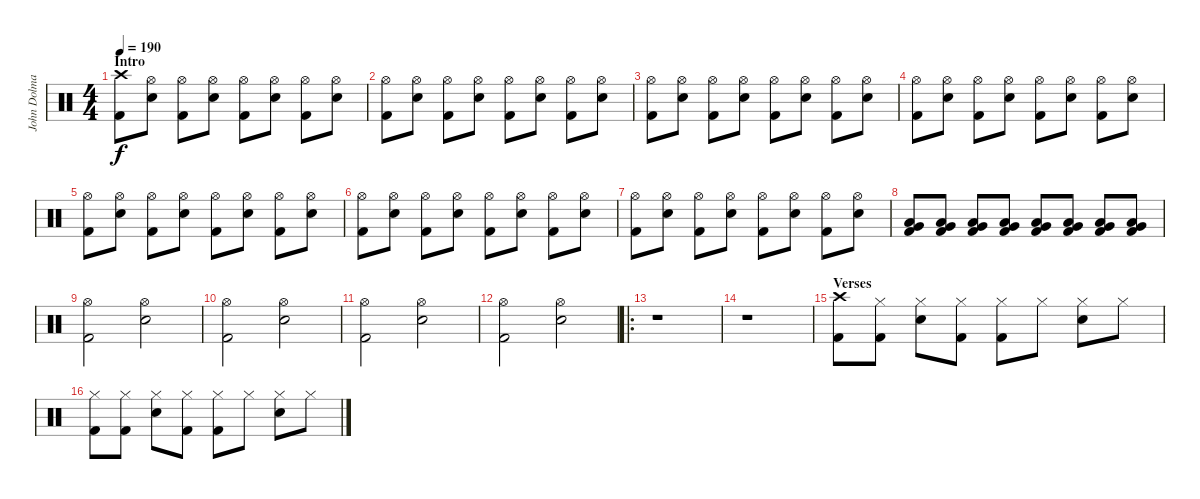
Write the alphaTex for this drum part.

\track ("John Dolmayan" "John Dolma") {instrument percussion}
\staff {score}
\articulation defaults
\ts (4 4)
\section ("" "Intro")
\tempo 190
\clef neutral
\ks c
("Crash high (hit)" "Kick (hit) 2").8{dy f} ("Hi-Hat (open)" "Electric Snare (hit)").8 ("Hi-Hat (open)" "Kick (hit) 2").8 ("Hi-Hat (open)" "Electric Snare (hit)").8 ("Hi-Hat (open)" "Kick (hit) 2").8 ("Hi-Hat (open)" "Electric Snare (hit)").8 ("Hi-Hat (open)" "Kick (hit) 2").8 ("Hi-Hat (open)" "Electric Snare (hit)").8 |
("Hi-Hat (open)" "Kick (hit) 2").8 ("Hi-Hat (open)" "Electric Snare (hit)").8 ("Hi-Hat (open)" "Kick (hit) 2").8 ("Hi-Hat (open)" "Electric Snare (hit)").8 ("Hi-Hat (open)" "Kick (hit) 2").8 ("Hi-Hat (open)" "Electric Snare (hit)").8 ("Hi-Hat (open)" "Kick (hit) 2").8 ("Hi-Hat (open)" "Electric Snare (hit)").8 |
("Hi-Hat (open)" "Kick (hit) 2").8 ("Hi-Hat (open)" "Electric Snare (hit)").8 ("Hi-Hat (open)" "Kick (hit) 2").8 ("Hi-Hat (open)" "Electric Snare (hit)").8 ("Hi-Hat (open)" "Kick (hit) 2").8 ("Hi-Hat (open)" "Electric Snare (hit)").8 ("Hi-Hat (open)" "Kick (hit) 2").8 ("Hi-Hat (open)" "Electric Snare (hit)").8 |
("Hi-Hat (open)" "Kick (hit) 2").8 ("Hi-Hat (open)" "Electric Snare (hit)").8 ("Hi-Hat (open)" "Kick (hit) 2").8 ("Hi-Hat (open)" "Electric Snare (hit)").8 ("Hi-Hat (open)" "Kick (hit) 2").8 ("Hi-Hat (open)" "Electric Snare (hit)").8 ("Hi-Hat (open)" "Kick (hit) 2").8 ("Hi-Hat (open)" "Electric Snare (hit)").8 |
("Hi-Hat (open)" "Kick (hit) 2").8 ("Hi-Hat (open)" "Electric Snare (hit)").8 ("Hi-Hat (open)" "Kick (hit) 2").8 ("Hi-Hat (open)" "Electric Snare (hit)").8 ("Hi-Hat (open)" "Kick (hit) 2").8 ("Hi-Hat (open)" "Electric Snare (hit)").8 ("Hi-Hat (open)" "Kick (hit) 2").8 ("Hi-Hat (open)" "Electric Snare (hit)").8 |
("Hi-Hat (open)" "Kick (hit) 2").8 ("Hi-Hat (open)" "Electric Snare (hit)").8 ("Hi-Hat (open)" "Kick (hit) 2").8 ("Hi-Hat (open)" "Electric Snare (hit)").8 ("Hi-Hat (open)" "Kick (hit) 2").8 ("Hi-Hat (open)" "Electric Snare (hit)").8 ("Hi-Hat (open)" "Kick (hit) 2").8 ("Hi-Hat (open)" "Electric Snare (hit)").8 |
("Hi-Hat (open)" "Kick (hit) 2").8 ("Hi-Hat (open)" "Electric Snare (hit)").8 ("Hi-Hat (open)" "Kick (hit) 2").8 ("Hi-Hat (open)" "Electric Snare (hit)").8 ("Hi-Hat (open)" "Kick (hit) 2").8 ("Hi-Hat (open)" "Electric Snare (hit)").8 ("Hi-Hat (open)" "Kick (hit) 2").8 ("Hi-Hat (open)" "Electric Snare (hit)").8 |
("Very Low Tom (hit)" "Low Tom (hit)" "Kick (hit) 2").8 ("Very Low Tom (hit)" "Low Tom (hit)" "Kick (hit) 2").8 ("Very Low Tom (hit)" "Low Tom (hit)" "Kick (hit) 2").8 ("Very Low Tom (hit)" "Low Tom (hit)" "Kick (hit) 2").8 ("Very Low Tom (hit)" "Low Tom (hit)" "Kick (hit) 2").8 ("Very Low Tom (hit)" "Low Tom (hit)" "Kick (hit) 2").8 ("Very Low Tom (hit)" "Low Tom (hit)" "Kick (hit) 2").8 ("Very Low Tom (hit)" "Low Tom (hit)" "Kick (hit) 2").8 |
("Hi-Hat (open)" "Kick (hit) 2").2 ("Hi-Hat (open)" "Electric Snare (hit)").2 |
("Hi-Hat (open)" "Kick (hit) 2").2 ("Hi-Hat (open)" "Electric Snare (hit)").2 |
("Hi-Hat (open)" "Kick (hit) 2").2 ("Hi-Hat (open)" "Electric Snare (hit)").2 |
("Hi-Hat (open)" "Kick (hit) 2").2 ("Hi-Hat (open)" "Electric Snare (hit)").2 |
\ro
r.1 |
r.1 |
\section ("" "Verses")
("Crash high (hit)" "Kick (hit) 2").8 ("Hi-Hat (closed)" "Kick (hit) 2").8 ("Hi-Hat (closed)" "Electric Snare (hit)").8 ("Hi-Hat (closed)" "Kick (hit) 2").8 ("Hi-Hat (closed)" "Kick (hit) 2").8 "Hi-Hat (closed)".8 ("Hi-Hat (closed)" "Electric Snare (hit)").8 "Hi-Hat (closed)".8 |
("Hi-Hat (closed)" "Kick (hit) 2").8 ("Hi-Hat (closed)" "Kick (hit) 2").8 ("Hi-Hat (closed)" "Electric Snare (hit)").8 ("Hi-Hat (closed)" "Kick (hit) 2").8 ("Hi-Hat (closed)" "Kick (hit) 2").8 "Hi-Hat (closed)".8 ("Hi-Hat (closed)" "Electric Snare (hit)").8 "Hi-Hat (closed)".8
